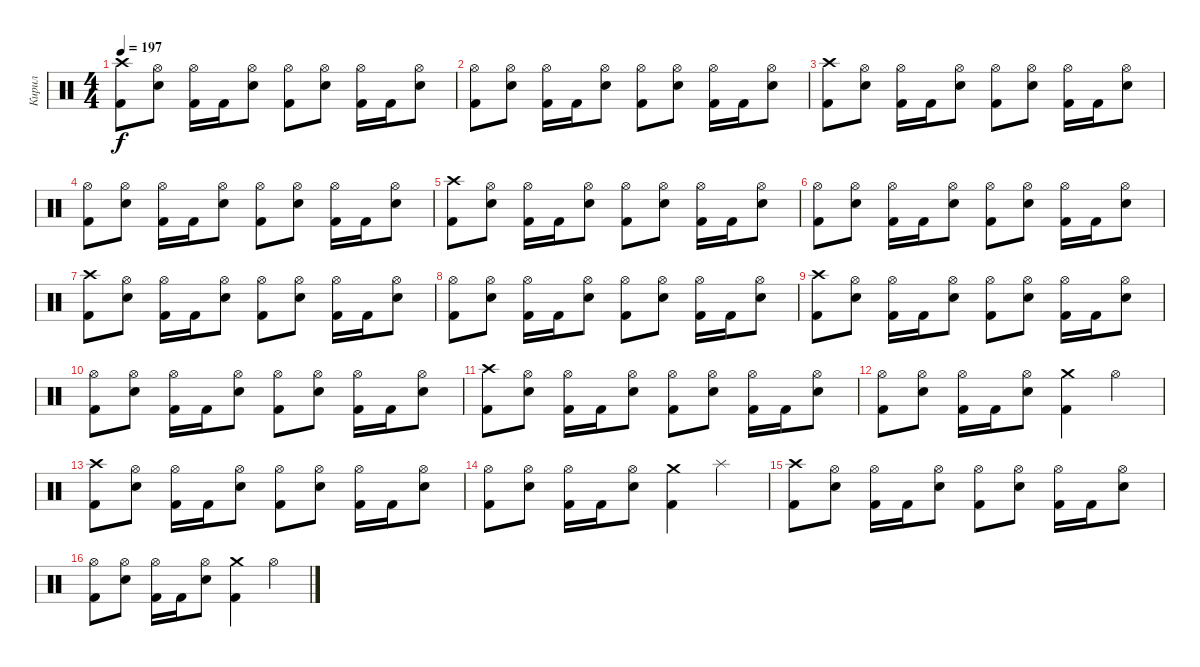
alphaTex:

\track ("Кирил" "Кирил") {instrument percussion}
\staff {score}
\articulation defaults
\ts (4 4)
\tempo 197
\clef neutral
\ks c
("Crash high (hit)" "Kick (hit) 2").8{dy f} ("Hi-Hat (open)" "Electric Snare (hit)").8 ("Hi-Hat (open)" "Kick (hit) 2").16 "Kick (hit) 2".16 ("Hi-Hat (open)" "Electric Snare (hit)").8 ("Hi-Hat (open)" "Kick (hit) 2").8 ("Hi-Hat (open)" "Electric Snare (hit)").8 ("Hi-Hat (open)" "Kick (hit) 2").16 "Kick (hit) 2".16 ("Hi-Hat (open)" "Electric Snare (hit)").8 |
("Hi-Hat (open)" "Kick (hit) 2").8 ("Hi-Hat (open)" "Electric Snare (hit)").8 ("Hi-Hat (open)" "Kick (hit) 2").16 "Kick (hit) 2".16 ("Hi-Hat (open)" "Electric Snare (hit)").8 ("Hi-Hat (open)" "Kick (hit) 2").8 ("Hi-Hat (open)" "Electric Snare (hit)").8 ("Hi-Hat (open)" "Kick (hit) 2").16 "Kick (hit) 2".16 ("Hi-Hat (open)" "Electric Snare (hit)").8 |
("Crash high (hit)" "Kick (hit) 2").8 ("Hi-Hat (open)" "Electric Snare (hit)").8 ("Hi-Hat (open)" "Kick (hit) 2").16 "Kick (hit) 2".16 ("Hi-Hat (open)" "Electric Snare (hit)").8 ("Hi-Hat (open)" "Kick (hit) 2").8 ("Hi-Hat (open)" "Electric Snare (hit)").8 ("Hi-Hat (open)" "Kick (hit) 2").16 "Kick (hit) 2".16 ("Hi-Hat (open)" "Electric Snare (hit)").8 |
("Hi-Hat (open)" "Kick (hit) 2").8 ("Hi-Hat (open)" "Electric Snare (hit)").8 ("Hi-Hat (open)" "Kick (hit) 2").16 "Kick (hit) 2".16 ("Hi-Hat (open)" "Electric Snare (hit)").8 ("Hi-Hat (open)" "Kick (hit) 2").8 ("Hi-Hat (open)" "Electric Snare (hit)").8 ("Hi-Hat (open)" "Kick (hit) 2").16 "Kick (hit) 2".16 ("Hi-Hat (open)" "Electric Snare (hit)").8 |
("Crash high (hit)" "Kick (hit) 2").8 ("Hi-Hat (open)" "Electric Snare (hit)").8 ("Hi-Hat (open)" "Kick (hit) 2").16 "Kick (hit) 2".16 ("Hi-Hat (open)" "Electric Snare (hit)").8 ("Hi-Hat (open)" "Kick (hit) 2").8 ("Hi-Hat (open)" "Electric Snare (hit)").8 ("Hi-Hat (open)" "Kick (hit) 2").16 "Kick (hit) 2".16 ("Hi-Hat (open)" "Electric Snare (hit)").8 |
("Hi-Hat (open)" "Kick (hit) 2").8 ("Hi-Hat (open)" "Electric Snare (hit)").8 ("Hi-Hat (open)" "Kick (hit) 2").16 "Kick (hit) 2".16 ("Hi-Hat (open)" "Electric Snare (hit)").8 ("Hi-Hat (open)" "Kick (hit) 2").8 ("Hi-Hat (open)" "Electric Snare (hit)").8 ("Hi-Hat (open)" "Kick (hit) 2").16 "Kick (hit) 2".16 ("Hi-Hat (open)" "Electric Snare (hit)").8 |
("Crash high (hit)" "Kick (hit) 2").8 ("Hi-Hat (open)" "Electric Snare (hit)").8 ("Hi-Hat (open)" "Kick (hit) 2").16 "Kick (hit) 2".16 ("Hi-Hat (open)" "Electric Snare (hit)").8 ("Hi-Hat (open)" "Kick (hit) 2").8 ("Hi-Hat (open)" "Electric Snare (hit)").8 ("Hi-Hat (open)" "Kick (hit) 2").16 "Kick (hit) 2".16 ("Hi-Hat (open)" "Electric Snare (hit)").8 |
("Hi-Hat (open)" "Kick (hit) 2").8 ("Hi-Hat (open)" "Electric Snare (hit)").8 ("Hi-Hat (open)" "Kick (hit) 2").16 "Kick (hit) 2".16 ("Hi-Hat (open)" "Electric Snare (hit)").8 ("Hi-Hat (open)" "Kick (hit) 2").8 ("Hi-Hat (open)" "Electric Snare (hit)").8 ("Hi-Hat (open)" "Kick (hit) 2").16 "Kick (hit) 2".16 ("Hi-Hat (open)" "Electric Snare (hit)").8 |
("Crash high (hit)" "Kick (hit) 2").8 ("Hi-Hat (open)" "Electric Snare (hit)").8 ("Hi-Hat (open)" "Kick (hit) 2").16 "Kick (hit) 2".16 ("Hi-Hat (open)" "Electric Snare (hit)").8 ("Hi-Hat (open)" "Kick (hit) 2").8 ("Hi-Hat (open)" "Electric Snare (hit)").8 ("Hi-Hat (open)" "Kick (hit) 2").16 "Kick (hit) 2".16 ("Hi-Hat (open)" "Electric Snare (hit)").8 |
("Hi-Hat (open)" "Kick (hit) 2").8 ("Hi-Hat (open)" "Electric Snare (hit)").8 ("Hi-Hat (open)" "Kick (hit) 2").16 "Kick (hit) 2".16 ("Hi-Hat (open)" "Electric Snare (hit)").8 ("Hi-Hat (open)" "Kick (hit) 2").8 ("Hi-Hat (open)" "Electric Snare (hit)").8 ("Hi-Hat (open)" "Kick (hit) 2").16 "Kick (hit) 2".16 ("Hi-Hat (open)" "Electric Snare (hit)").8 |
("Crash high (hit)" "Kick (hit) 2").8 ("Hi-Hat (open)" "Electric Snare (hit)").8 ("Hi-Hat (open)" "Kick (hit) 2").16 "Kick (hit) 2".16 ("Hi-Hat (open)" "Electric Snare (hit)").8 ("Hi-Hat (open)" "Kick (hit) 2").8 ("Hi-Hat (open)" "Electric Snare (hit)").8 ("Hi-Hat (open)" "Kick (hit) 2").16 "Kick (hit) 2".16 ("Hi-Hat (open)" "Electric Snare (hit)").8 |
("Hi-Hat (open)" "Kick (hit) 2").8 ("Hi-Hat (open)" "Electric Snare (hit)").8 ("Hi-Hat (open)" "Kick (hit) 2").16 "Kick (hit) 2".16 ("Hi-Hat (open)" "Electric Snare (hit)").8 ("Crash medium (hit)" "Kick (hit) 2").4 "Hi-Hat (open)".4 |
("Crash high (hit)" "Kick (hit) 2").8 ("Hi-Hat (open)" "Electric Snare (hit)").8 ("Hi-Hat (open)" "Kick (hit) 2").16 "Kick (hit) 2".16 ("Hi-Hat (open)" "Electric Snare (hit)").8 ("Hi-Hat (open)" "Kick (hit) 2").8 ("Hi-Hat (open)" "Electric Snare (hit)").8 ("Hi-Hat (open)" "Kick (hit) 2").16 "Kick (hit) 2".16 ("Hi-Hat (open)" "Electric Snare (hit)").8 |
("Hi-Hat (open)" "Kick (hit) 2").8 ("Hi-Hat (open)" "Electric Snare (hit)").8 ("Hi-Hat (open)" "Kick (hit) 2").16 "Kick (hit) 2".16 ("Hi-Hat (open)" "Electric Snare (hit)").8 ("Crash medium (hit)" "Kick (hit) 2").4 "Splash (hit)".4 |
("Crash high (hit)" "Kick (hit) 2").8 ("Hi-Hat (open)" "Electric Snare (hit)").8 ("Hi-Hat (open)" "Kick (hit) 2").16 "Kick (hit) 2".16 ("Hi-Hat (open)" "Electric Snare (hit)").8 ("Hi-Hat (open)" "Kick (hit) 2").8 ("Hi-Hat (open)" "Electric Snare (hit)").8 ("Hi-Hat (open)" "Kick (hit) 2").16 "Kick (hit) 2".16 ("Hi-Hat (open)" "Electric Snare (hit)").8 |
("Hi-Hat (open)" "Kick (hit) 2").8 ("Hi-Hat (open)" "Electric Snare (hit)").8 ("Hi-Hat (open)" "Kick (hit) 2").16 "Kick (hit) 2".16 ("Hi-Hat (open)" "Electric Snare (hit)").8 ("Crash medium (hit)" "Kick (hit) 2").4 "Hi-Hat (open)".4
